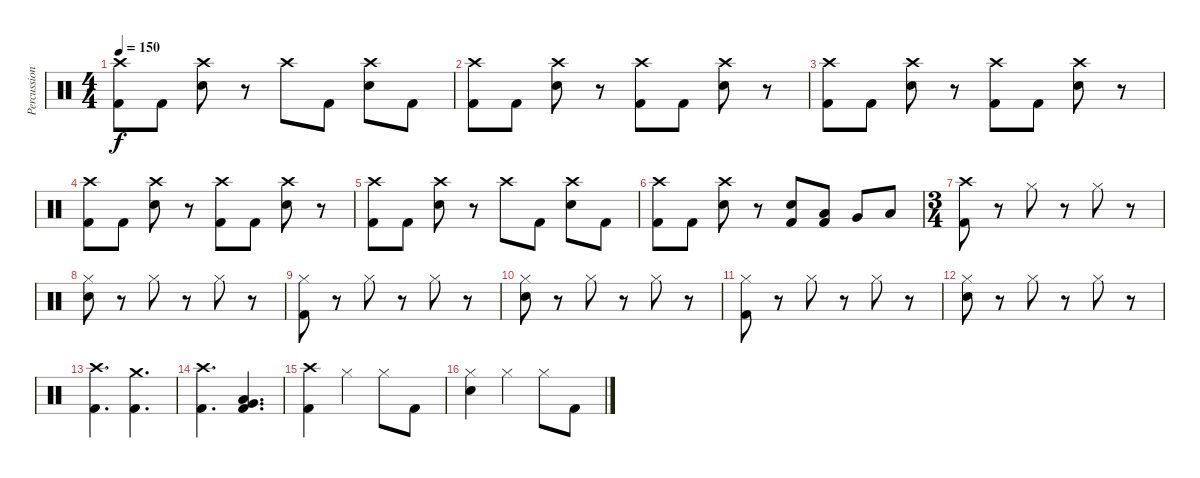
\track ("Percussion" "Percussion") {instrument percussion}
\staff {score}
\articulation defaults
\ts (4 4)
\tempo 150
\clef neutral
\ks c
("Crash high (hit)" "Kick (hit) 2").8{dy f} "Kick (hit) 2".8 ("Crash high (hit)" "Electric Snare (hit)").8 r.8 "Crash high (hit)".8 "Kick (hit) 2".8 ("Crash high (hit)" "Electric Snare (hit)").8 "Kick (hit) 2".8 |
("Crash high (hit)" "Kick (hit) 2").8 "Kick (hit) 2".8 ("Crash high (hit)" "Electric Snare (hit)").8 r.8 ("Crash high (hit)" "Kick (hit) 2").8 "Kick (hit) 2".8 ("Crash high (hit)" "Electric Snare (hit)").8 r.8 |
("Crash high (hit)" "Kick (hit) 2").8 "Kick (hit) 2".8 ("Crash high (hit)" "Electric Snare (hit)").8 r.8 ("Crash high (hit)" "Kick (hit) 2").8 "Kick (hit) 2".8 ("Crash high (hit)" "Electric Snare (hit)").8 r.8 |
("Crash high (hit)" "Kick (hit) 2").8 "Kick (hit) 2".8 ("Crash high (hit)" "Electric Snare (hit)").8 r.8 ("Crash high (hit)" "Kick (hit) 2").8 "Kick (hit) 2".8 ("Crash high (hit)" "Electric Snare (hit)").8 r.8 |
("Crash high (hit)" "Kick (hit) 2").8 "Kick (hit) 2".8 ("Crash high (hit)" "Electric Snare (hit)").8 r.8 "Crash high (hit)".8 "Kick (hit) 2".8 ("Crash high (hit)" "Electric Snare (hit)").8 "Kick (hit) 2".8 |
("Crash high (hit)" "Kick (hit) 2").8 "Kick (hit) 2".8 ("Crash high (hit)" "Electric Snare (hit)").8 r.8 ("Electric Snare (hit)" "Kick (hit) 2").8 ("Low Tom (hit)" "Kick (hit) 2").8 "Very Low Tom (hit)".8 "Low Floor Tom (hit)".8 |
\ts (3 4)
("Crash high (hit)" "Kick (hit) 2").8 r.8 "Hi-Hat (closed)".8 r.8 "Hi-Hat (closed)".8 r.8 |
("Hi-Hat (closed)" "Electric Snare (hit)").8 r.8 "Hi-Hat (closed)".8 r.8 "Hi-Hat (closed)".8 r.8 |
("Hi-Hat (closed)" "Kick (hit) 2").8 r.8 "Hi-Hat (closed)".8 r.8 "Hi-Hat (closed)".8 r.8 |
("Hi-Hat (closed)" "Electric Snare (hit)").8 r.8 "Hi-Hat (closed)".8 r.8 "Hi-Hat (closed)".8 r.8 |
("Hi-Hat (closed)" "Kick (hit) 2").8 r.8 "Hi-Hat (closed)".8 r.8 "Hi-Hat (closed)".8 r.8 |
("Hi-Hat (closed)" "Electric Snare (hit)").8 r.8 "Hi-Hat (closed)".8 r.8 "Hi-Hat (closed)".8 r.8 |
("Crash high (hit)" "Kick (hit) 2").4{d} ("Crash medium (hit)" "Kick (hit) 2").4{d} |
("Crash high (hit)" "Kick (hit) 2").4{d} ("Low Tom (hit)" "Very Low Tom (hit)" "Kick (hit) 2").4{d} |
("Crash high (hit)" "Kick (hit) 2").4 "Hi-Hat (closed)".4 "Hi-Hat (closed)".8 "Kick (hit) 2".8 |
("Hi-Hat (closed)" "Electric Snare (hit)").4 "Hi-Hat (closed)".4 "Hi-Hat (closed)".8 "Kick (hit) 2".8
